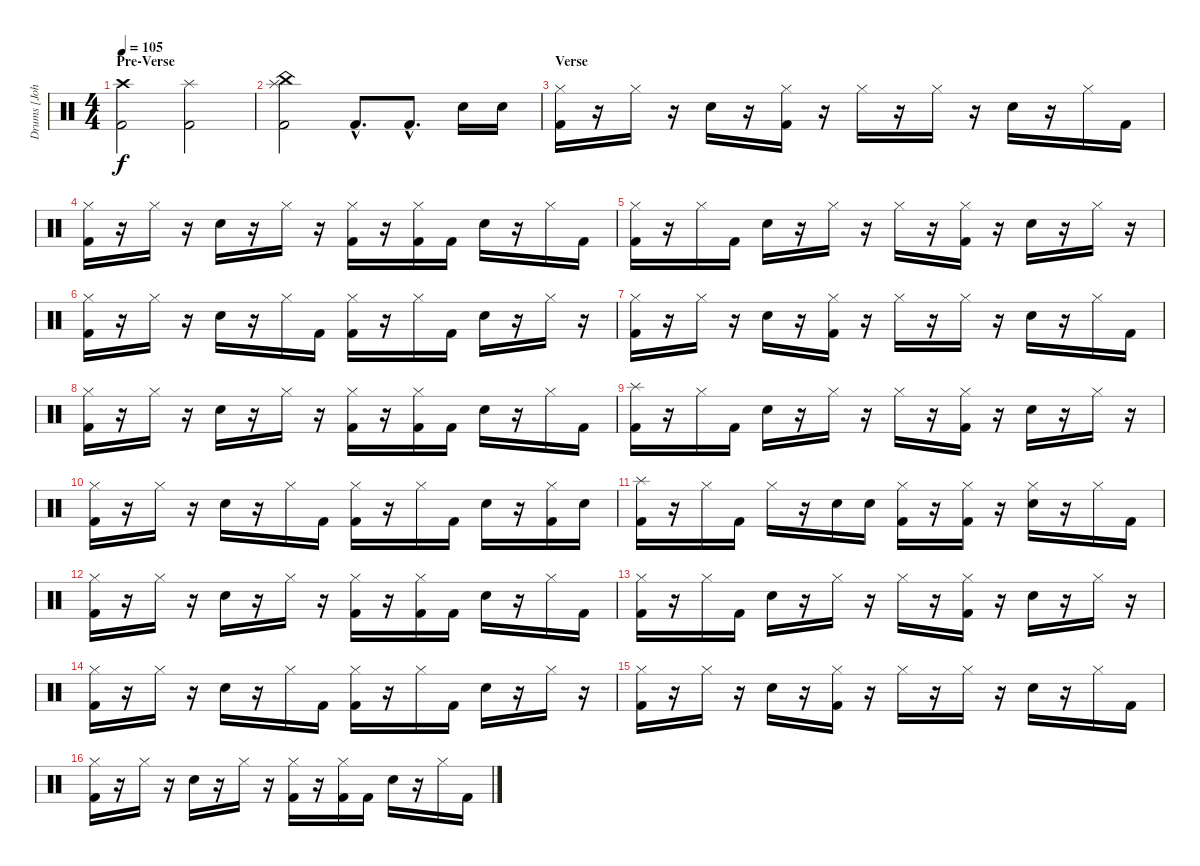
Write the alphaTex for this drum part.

\track ("Drums [John Otto]" "Drums [Joh") {instrument percussion}
\staff {score}
\articulation defaults
\ts (4 4)
\section ("" "Pre-Verse")
\tempo 105
\clef neutral
\ks c
("Crash high (hit)" "Kick (hit) 2").2{dy f} ("Splash (hit)" "Kick (hit) 2").2 |
("China (hit)" "Splash (hit)" "Kick (hit) 2").2 "Kick (hit) 2"{hac}.8{d} "Kick (hit) 2"{hac}.8{d} "Electric Snare (hit)".16 "Electric Snare (hit)".16 |
\section ("" "Verse")
("Hi-Hat (closed)" "Kick (hit) 2").16 r.16 "Hi-Hat (closed)".16 r.16 "Electric Snare (hit)".16 r.16 ("Hi-Hat (closed)" "Kick (hit) 2").16 r.16 "Hi-Hat (closed)".16 r.16 "Hi-Hat (closed)".16 r.16 "Electric Snare (hit)".16 r.16 "Hi-Hat (closed)".16 "Kick (hit) 2".16 |
("Hi-Hat (closed)" "Kick (hit) 2").16 r.16 "Hi-Hat (closed)".16 r.16 "Electric Snare (hit)".16 r.16 "Hi-Hat (closed)".16 r.16 ("Hi-Hat (closed)" "Kick (hit) 2").16 r.16 ("Hi-Hat (closed)" "Kick (hit) 2").16 "Kick (hit) 2".16 "Electric Snare (hit)".16 r.16 "Hi-Hat (closed)".16 "Kick (hit) 2".16 |
("Hi-Hat (closed)" "Kick (hit) 2").16 r.16 "Hi-Hat (closed)".16 "Kick (hit) 2".16 "Electric Snare (hit)".16 r.16 "Hi-Hat (closed)".16 r.16 "Hi-Hat (closed)".16 r.16 ("Hi-Hat (closed)" "Kick (hit) 2").16 r.16 "Electric Snare (hit)".16 r.16 "Hi-Hat (closed)".16 r.16 |
("Hi-Hat (closed)" "Kick (hit) 2").16 r.16 "Hi-Hat (closed)".16 r.16 "Electric Snare (hit)".16 r.16 "Hi-Hat (closed)".16 "Kick (hit) 2".16 ("Hi-Hat (closed)" "Kick (hit) 2").16 r.16 "Hi-Hat (closed)".16 "Kick (hit) 2".16 "Electric Snare (hit)".16 r.16 "Hi-Hat (closed)".16 r.16 |
("Hi-Hat (closed)" "Kick (hit) 2").16 r.16 "Hi-Hat (closed)".16 r.16 "Electric Snare (hit)".16 r.16 ("Hi-Hat (closed)" "Kick (hit) 2").16 r.16 "Hi-Hat (closed)".16 r.16 "Hi-Hat (closed)".16 r.16 "Electric Snare (hit)".16 r.16 "Hi-Hat (closed)".16 "Kick (hit) 2".16 |
("Hi-Hat (closed)" "Kick (hit) 2").16 r.16 "Hi-Hat (closed)".16 r.16 "Electric Snare (hit)".16 r.16 "Hi-Hat (closed)".16 r.16 ("Hi-Hat (closed)" "Kick (hit) 2").16 r.16 ("Hi-Hat (closed)" "Kick (hit) 2").16 "Kick (hit) 2".16 "Electric Snare (hit)".16 r.16 "Hi-Hat (closed)".16 "Kick (hit) 2".16 |
("Splash (hit)" "Kick (hit) 2").16 r.16 "Hi-Hat (closed)".16 "Kick (hit) 2".16 "Electric Snare (hit)".16 r.16 "Hi-Hat (closed)".16 r.16 "Hi-Hat (closed)".16 r.16 ("Hi-Hat (closed)" "Kick (hit) 2").16 r.16 "Electric Snare (hit)".16 r.16 "Hi-Hat (closed)".16 r.16 |
("Hi-Hat (closed)" "Kick (hit) 2").16 r.16 "Hi-Hat (closed)".16 r.16 "Electric Snare (hit)".16 r.16 "Hi-Hat (closed)".16 "Kick (hit) 2".16 ("Hi-Hat (closed)" "Kick (hit) 2").16 r.16 "Hi-Hat (closed)".16 "Kick (hit) 2".16 "Electric Snare (hit)".16 r.16 ("Hi-Hat (closed)" "Kick (hit) 2").16 "Electric Snare (hit)".16 |
("Splash (hit)" "Kick (hit) 2").16 r.16 "Hi-Hat (closed)".16 "Kick (hit) 2".16 "Hi-Hat (closed)".16 r.16 "Electric Snare (hit)".16 "Electric Snare (hit)".16 ("Hi-Hat (closed)" "Kick (hit) 2").16 r.16 ("Hi-Hat (closed)" "Kick (hit) 2").16 r.16 ("Hi-Hat (closed)" "Electric Snare (hit)").16 r.16 "Hi-Hat (closed)".16 "Kick (hit) 2".16 |
("Hi-Hat (closed)" "Kick (hit) 2").16 r.16 "Hi-Hat (closed)".16 r.16 "Electric Snare (hit)".16 r.16 "Hi-Hat (closed)".16 r.16 ("Hi-Hat (closed)" "Kick (hit) 2").16 r.16 ("Hi-Hat (closed)" "Kick (hit) 2").16 "Kick (hit) 2".16 "Electric Snare (hit)".16 r.16 "Hi-Hat (closed)".16 "Kick (hit) 2".16 |
("Hi-Hat (closed)" "Kick (hit) 2").16 r.16 "Hi-Hat (closed)".16 "Kick (hit) 2".16 "Electric Snare (hit)".16 r.16 "Hi-Hat (closed)".16 r.16 "Hi-Hat (closed)".16 r.16 ("Hi-Hat (closed)" "Kick (hit) 2").16 r.16 "Electric Snare (hit)".16 r.16 "Hi-Hat (closed)".16 r.16 |
("Hi-Hat (closed)" "Kick (hit) 2").16 r.16 "Hi-Hat (closed)".16 r.16 "Electric Snare (hit)".16 r.16 "Hi-Hat (closed)".16 "Kick (hit) 2".16 ("Hi-Hat (closed)" "Kick (hit) 2").16 r.16 "Hi-Hat (closed)".16 "Kick (hit) 2".16 "Electric Snare (hit)".16 r.16 "Hi-Hat (closed)".16 r.16 |
("Hi-Hat (closed)" "Kick (hit) 2").16 r.16 "Hi-Hat (closed)".16 r.16 "Electric Snare (hit)".16 r.16 ("Hi-Hat (closed)" "Kick (hit) 2").16 r.16 "Hi-Hat (closed)".16 r.16 "Hi-Hat (closed)".16 r.16 "Electric Snare (hit)".16 r.16 "Hi-Hat (closed)".16 "Kick (hit) 2".16 |
("Hi-Hat (closed)" "Kick (hit) 2").16 r.16 "Hi-Hat (closed)".16 r.16 "Electric Snare (hit)".16 r.16 "Hi-Hat (closed)".16 r.16 ("Hi-Hat (closed)" "Kick (hit) 2").16 r.16 ("Hi-Hat (closed)" "Kick (hit) 2").16 "Kick (hit) 2".16 "Electric Snare (hit)".16 r.16 "Hi-Hat (closed)".16 "Kick (hit) 2".16
